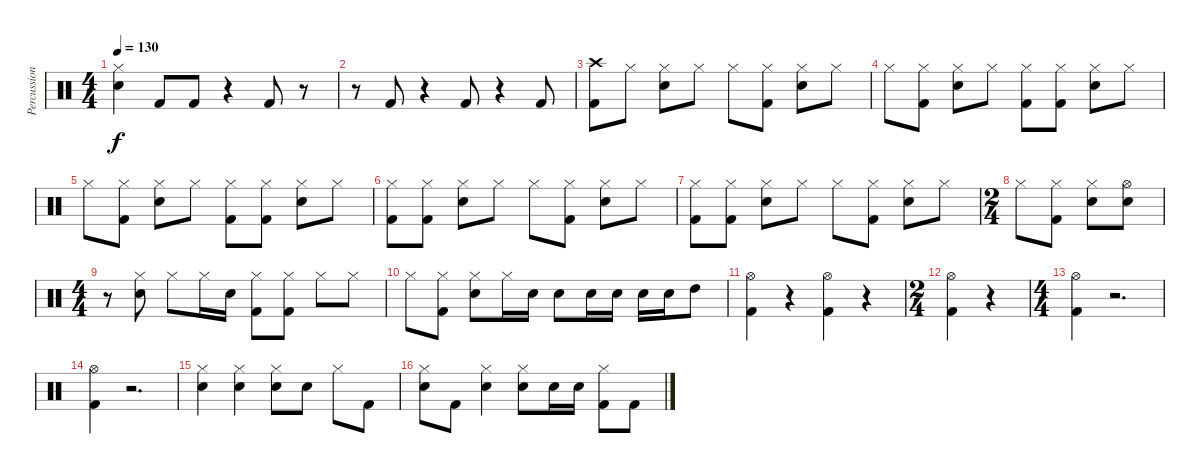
\track ("Percussion" "Percussion") {instrument percussion}
\staff {score}
\articulation defaults
\ts (4 4)
\tempo 130
\clef neutral
\ks c
("Snare (hit) 2" "Hi-Hat (closed)").4{dy f} "Kick (hit) 2".8 "Kick (hit) 2".8 r.4 "Kick (hit) 2".8 r.8 |
r.8 "Kick (hit) 2".8 r.4 "Kick (hit) 2".8 r.4 "Kick (hit) 2".8 |
("Kick (hit) 2" "Crash high (hit)").8 "Hi-Hat (closed)".8 ("Snare (hit) 2" "Hi-Hat (closed)").8 "Hi-Hat (closed)".8 "Hi-Hat (closed)".8 ("Kick (hit) 2" "Hi-Hat (closed)").8 ("Snare (hit) 2" "Hi-Hat (closed)").8 "Hi-Hat (closed)".8 |
"Hi-Hat (closed)".8 ("Kick (hit) 2" "Hi-Hat (closed)").8 ("Snare (hit) 2" "Hi-Hat (closed)").8 "Hi-Hat (closed)".8 ("Kick (hit) 2" "Hi-Hat (closed)").8 ("Kick (hit) 2" "Hi-Hat (closed)").8 ("Snare (hit) 2" "Hi-Hat (closed)").8 "Hi-Hat (closed)".8 |
"Hi-Hat (closed)".8 ("Kick (hit) 2" "Hi-Hat (closed)").8 ("Snare (hit) 2" "Hi-Hat (closed)").8 "Hi-Hat (closed)".8 ("Kick (hit) 2" "Hi-Hat (closed)").8 ("Kick (hit) 2" "Hi-Hat (closed)").8 ("Snare (hit) 2" "Hi-Hat (closed)").8 "Hi-Hat (closed)".8 |
("Kick (hit) 2" "Hi-Hat (closed)").8 ("Kick (hit) 2" "Hi-Hat (closed)").8 ("Snare (hit) 2" "Hi-Hat (closed)").8 "Hi-Hat (closed)".8 "Hi-Hat (closed)".8 ("Kick (hit) 2" "Hi-Hat (closed)").8 ("Snare (hit) 2" "Hi-Hat (closed)").8 "Hi-Hat (closed)".8 |
("Kick (hit) 2" "Hi-Hat (closed)").8 ("Kick (hit) 2" "Hi-Hat (closed)").8 ("Snare (hit) 2" "Hi-Hat (closed)").8 "Hi-Hat (closed)".8 "Hi-Hat (closed)".8 ("Kick (hit) 2" "Hi-Hat (closed)").8 ("Snare (hit) 2" "Hi-Hat (closed)").8 "Hi-Hat (closed)".8 |
\ts (2 4)
"Hi-Hat (closed)".8 ("Kick (hit) 2" "Hi-Hat (closed)").8 ("Snare (hit) 2" "Hi-Hat (closed)").8 ("Snare (hit) 2" "Hi-Hat (open)").8 |
\ts (4 4)
r.8 ("Snare (hit) 2" "Hi-Hat (closed)").8 "Hi-Hat (closed)".8 "Hi-Hat (closed)".16 "Snare (hit) 2".16 ("Kick (hit) 2" "Hi-Hat (closed)").8 ("Kick (hit) 2" "Hi-Hat (closed)").8 "Hi-Hat (closed)".8 "Hi-Hat (closed)".8 |
"Hi-Hat (closed)".8 ("Kick (hit) 2" "Hi-Hat (closed)").8 ("Snare (hit) 2" "Hi-Hat (closed)").8 "Hi-Hat (closed)".16 "Snare (hit) 2".16 "Snare (hit) 2".8 "Snare (hit) 2".16 "Snare (hit) 2".16 "Snare (hit) 2".16 "Snare (hit) 2".16 "High Tom (hit)".8 |
("Kick (hit) 2" "Hi-Hat (open)").4 r.4 ("Kick (hit) 2" "Hi-Hat (open)").4 r.4 |
\ts (2 4)
("Kick (hit) 2" "Hi-Hat (open)").4 r.4 |
\ts (4 4)
("Kick (hit) 2" "Hi-Hat (open)").4 r.2{d} |
("Kick (hit) 2" "Hi-Hat (open)").4 r.2{d} |
("Snare (hit) 2" "Hi-Hat (closed)").4 ("Snare (hit) 2" "Hi-Hat (closed)").4 ("Snare (hit) 2" "Hi-Hat (closed)").8 "Snare (hit) 2".8 "Hi-Hat (closed)".8 "Kick (hit) 2".8 |
("Snare (hit) 2" "Hi-Hat (closed)").8 "Kick (hit) 2".8 ("Snare (hit) 2" "Hi-Hat (closed)").4 ("Snare (hit) 2" "Hi-Hat (closed)").8 "Snare (hit) 2".16 "Snare (hit) 2".16 ("Kick (hit) 2" "Hi-Hat (closed)").8 "Kick (hit) 2".8
